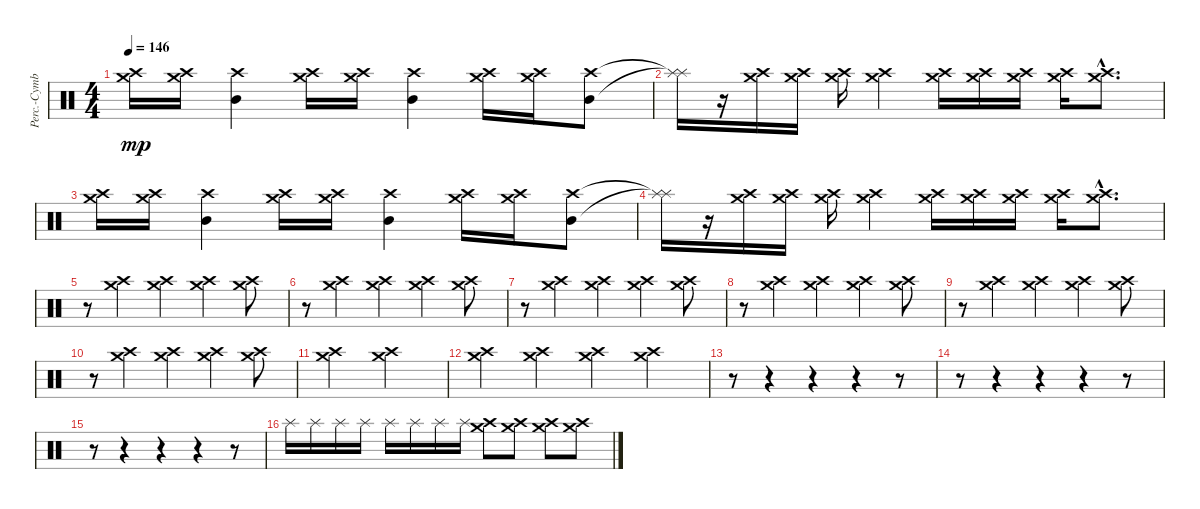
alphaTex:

\track ("Perc.-Cymbals" "Perc.-Cymb") {instrument percussion}
\staff {score}
\articulation defaults
\ts (4 4)
\tempo 146
\clef neutral
\ks c
("Crash high (hit)" "Crash medium (hit)").16{dy mp} ("Crash high (hit)" "Crash medium (hit)").16 ("Crash high (hit)" "Mid Tom (hit)").4 ("Crash high (hit)" "Crash medium (hit)").16 ("Crash high (hit)" "Crash medium (hit)").16 ("Crash high (hit)" "Mid Tom (hit)").4 ("Crash high (hit)" "Crash medium (hit)").16 ("Crash high (hit)" "Crash medium (hit)").16 ("Crash high (hit)" "Mid Tom (hit)").8 |
("Splash (hit)"{t} "Splash (hit)"{t}).16 r.16 ("Crash high (hit)" "Crash medium (hit)").16 ("Crash high (hit)" "Crash medium (hit)").16 ("Crash high (hit)" "Crash medium (hit)").16 ("Crash high (hit)" "Crash medium (hit)").4 ("Crash high (hit)" "Crash medium (hit)").16 ("Crash high (hit)" "Crash medium (hit)").16 ("Crash high (hit)" "Crash medium (hit)").16 ("Crash high (hit)" "Crash medium (hit)").16 ("Crash high (hit)"{hac} "Crash medium (hit)"{hac}).8{d} |
("Crash high (hit)" "Crash medium (hit)").16 ("Crash high (hit)" "Crash medium (hit)").16 ("Crash high (hit)" "Mid Tom (hit)").4 ("Crash high (hit)" "Crash medium (hit)").16 ("Crash high (hit)" "Crash medium (hit)").16 ("Crash high (hit)" "Mid Tom (hit)").4 ("Crash high (hit)" "Crash medium (hit)").16 ("Crash high (hit)" "Crash medium (hit)").16 ("Crash high (hit)" "Mid Tom (hit)").8 |
("Splash (hit)"{t} "Splash (hit)"{t}).16 r.16 ("Crash high (hit)" "Crash medium (hit)").16 ("Crash high (hit)" "Crash medium (hit)").16 ("Crash high (hit)" "Crash medium (hit)").16 ("Crash high (hit)" "Crash medium (hit)").4 ("Crash high (hit)" "Crash medium (hit)").16 ("Crash high (hit)" "Crash medium (hit)").16 ("Crash high (hit)" "Crash medium (hit)").16 ("Crash high (hit)" "Crash medium (hit)").16 ("Crash high (hit)"{hac} "Crash medium (hit)"{hac}).8{d} |
r.8 ("Crash high (hit)" "Crash medium (hit)").4 ("Crash high (hit)" "Crash medium (hit)").4 ("Crash high (hit)" "Crash medium (hit)").4 ("Crash high (hit)" "Crash medium (hit)").8 |
r.8 ("Crash high (hit)" "Crash medium (hit)").4 ("Crash high (hit)" "Crash medium (hit)").4 ("Crash high (hit)" "Crash medium (hit)").4 ("Crash high (hit)" "Crash medium (hit)").8 |
r.8 ("Crash high (hit)" "Crash medium (hit)").4 ("Crash high (hit)" "Crash medium (hit)").4 ("Crash high (hit)" "Crash medium (hit)").4 ("Crash high (hit)" "Crash medium (hit)").8 |
r.8 ("Crash high (hit)" "Crash medium (hit)").4 ("Crash high (hit)" "Crash medium (hit)").4 ("Crash high (hit)" "Crash medium (hit)").4 ("Crash high (hit)" "Crash medium (hit)").8 |
r.8 ("Crash high (hit)" "Crash medium (hit)").4 ("Crash high (hit)" "Crash medium (hit)").4 ("Crash high (hit)" "Crash medium (hit)").4 ("Crash high (hit)" "Crash medium (hit)").8 |
r.8 ("Crash high (hit)" "Crash medium (hit)").4 ("Crash high (hit)" "Crash medium (hit)").4 ("Crash high (hit)" "Crash medium (hit)").4 ("Crash high (hit)" "Crash medium (hit)").8 |
("Crash high (hit)" "Crash medium (hit)").2 ("Crash high (hit)" "Crash medium (hit)").2 |
("Crash high (hit)" "Crash medium (hit)").4 ("Crash high (hit)" "Crash medium (hit)").4 ("Crash high (hit)" "Crash medium (hit)").4 ("Crash high (hit)" "Crash medium (hit)").4 |
r.8 r.4 r.4 r.4 r.8 |
r.8 r.4 r.4 r.4 r.8 |
r.8 r.4 r.4 r.4 r.8 |
"Splash (hit)".16 "Splash (hit)".16 "Splash (hit)".16 "Splash (hit)".16 "Splash (hit)".16 "Splash (hit)".16 "Splash (hit)".16 "Splash (hit)".16 ("Crash high (hit)" "Crash medium (hit)").8 ("Crash high (hit)" "Crash medium (hit)").8 ("Crash high (hit)" "Crash medium (hit)").8 ("Crash high (hit)" "Crash medium (hit)").8
